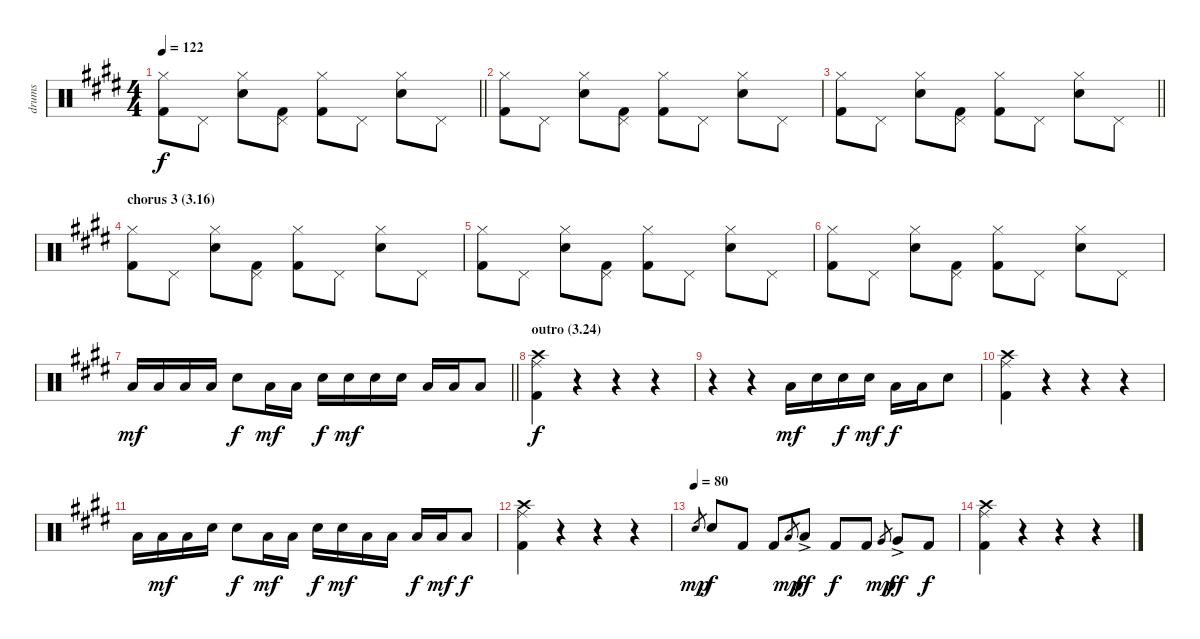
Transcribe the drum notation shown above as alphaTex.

\track ("drums" "drums") {instrument percussion}
\staff {score}
\articulation defaults
\ts (4 4)
\tempo 122
\clef neutral
\barLineRight lightlight
\ks e
("Hi-Hat (closed)" "Kick (hit) 2").8{dy f} "Pedal Hi-Hat (hit)".8 ("Hi-Hat (closed)" "Electric Snare (hit)").8 ("Pedal Hi-Hat (hit)" "Kick (hit) 2").8 ("Hi-Hat (closed)" "Kick (hit) 2").8 "Pedal Hi-Hat (hit)".8 ("Hi-Hat (closed)" "Electric Snare (hit)").8 "Pedal Hi-Hat (hit)".8 |
("Hi-Hat (closed)" "Kick (hit) 2").8 "Pedal Hi-Hat (hit)".8 ("Hi-Hat (closed)" "Electric Snare (hit)").8 ("Pedal Hi-Hat (hit)" "Kick (hit) 2").8 ("Hi-Hat (closed)" "Kick (hit) 2").8 "Pedal Hi-Hat (hit)".8 ("Hi-Hat (closed)" "Electric Snare (hit)").8 "Pedal Hi-Hat (hit)".8 |
\barLineRight lightlight
("Hi-Hat (closed)" "Kick (hit) 2").8 "Pedal Hi-Hat (hit)".8 ("Hi-Hat (closed)" "Electric Snare (hit)").8 ("Pedal Hi-Hat (hit)" "Kick (hit) 2").8 ("Hi-Hat (closed)" "Kick (hit) 2").8 "Pedal Hi-Hat (hit)".8 ("Hi-Hat (closed)" "Electric Snare (hit)").8 "Pedal Hi-Hat (hit)".8 |
\section ("" "chorus 3 (3.16)")
("Hi-Hat (closed)" "Kick (hit) 2").8 "Pedal Hi-Hat (hit)".8 ("Hi-Hat (closed)" "Electric Snare (hit)").8 ("Pedal Hi-Hat (hit)" "Kick (hit) 2").8 ("Hi-Hat (closed)" "Kick (hit) 2").8 "Pedal Hi-Hat (hit)".8 ("Hi-Hat (closed)" "Electric Snare (hit)").8 "Pedal Hi-Hat (hit)".8 |
("Hi-Hat (closed)" "Kick (hit) 2").8 "Pedal Hi-Hat (hit)".8 ("Hi-Hat (closed)" "Electric Snare (hit)").8 ("Pedal Hi-Hat (hit)" "Kick (hit) 2").8 ("Hi-Hat (closed)" "Kick (hit) 2").8 "Pedal Hi-Hat (hit)".8 ("Hi-Hat (closed)" "Electric Snare (hit)").8 "Pedal Hi-Hat (hit)".8 |
("Hi-Hat (closed)" "Kick (hit) 2").8 "Pedal Hi-Hat (hit)".8 ("Hi-Hat (closed)" "Electric Snare (hit)").8 ("Pedal Hi-Hat (hit)" "Kick (hit) 2").8 ("Hi-Hat (closed)" "Kick (hit) 2").8 "Pedal Hi-Hat (hit)".8 ("Hi-Hat (closed)" "Electric Snare (hit)").8 "Pedal Hi-Hat (hit)".8 |
\barLineRight lightlight "Low Tom (hit)".16{dy mf} "Low Tom (hit)".16 "Low Tom (hit)".16 "Low Tom (hit)".16 "Electric Snare (hit)".8{dy f} "Low Tom (hit)".16{dy mf} "Low Tom (hit)".16 "Electric Snare (hit)".16{dy f} "Electric Snare (hit)".16{dy mf} "Electric Snare (hit)".16 "Electric Snare (hit)".16 "Low Tom (hit)".16 "Low Tom (hit)".16 "Low Tom (hit)".8
|
\section ("" "outro (3.24)")
("Ride (middle)" "Crash high (hit)" "Kick (hit) 2").4{dy f} r.4 r.4 r.4 |
r.4 r.4 "Low Tom (hit)".16{dy mf} "Electric Snare (hit)".16 "Electric Snare (hit)".16{dy f} "Electric Snare (hit)".16{dy mf} "Low Tom (hit)".16{dy f} "Low Tom (hit)".16 "Electric Snare (hit)".8 |
("Ride (middle)" "Crash high (hit)" "Kick (hit) 2").4 r.4 r.4 r.4 |
"Low Tom (hit)".16 "Low Tom (hit)".16{dy mf} "Low Tom (hit)".16 "Electric Snare (hit)".16 "Electric Snare (hit)".8{dy f} "Low Tom (hit)".16{dy mf} "Low Tom (hit)".16 "Electric Snare (hit)".16{dy f} "Electric Snare (hit)".16{dy mf} "Low Tom (hit)".16 "Low Tom (hit)".16 "Low Tom (hit)".16{dy f} "Low Tom (hit)".16{dy mf} "Low Tom (hit)".8{dy f} |
("Ride (middle)" "Crash high (hit)" "Kick (hit) 2").4 r.4 r.4 r.4 |
\tempo (80)
"Electric Snare (hit)".8{gr dy mp} "Electric Snare (hit)".8{dy f} "Kick (hit) 2".8 "Kick (hit) 2".8 "Low Tom (hit)".8{gr dy mp} "Low Tom (hit)"{ac}.8{dy ff} "Kick (hit) 2".8{dy f} "Kick (hit) 2".8 "Very Low Tom (hit)".8{gr dy mp} "Very Low Tom (hit)"{ac}.8{dy ff} "Kick (hit) 2".8{dy f} |
("Ride (middle)" "Crash high (hit)" "Kick (hit) 2").4 r.4 r.4 r.4
